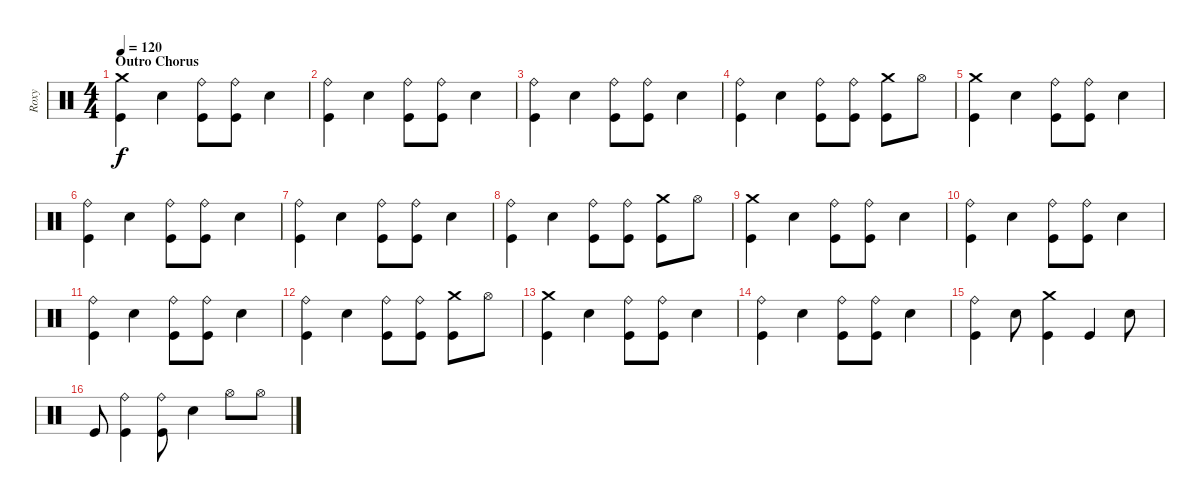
\track ("Roxy" "Roxy") {instrument percussion}
\staff {score}
\articulation defaults
\ts (4 4)
\section ("" "Outro Chorus")
\tempo 120
\clef neutral
\ks c
("Crash medium (hit)" "Kick (hit)").4{dy f} "Electric Snare (hit)".4 ("Ride (bell)" "Kick (hit)").8 ("Ride (bell)" "Kick (hit)").8 "Electric Snare (hit)".4 |
("Ride (bell)" "Kick (hit)").4 "Electric Snare (hit)".4 ("Ride (bell)" "Kick (hit)").8 ("Ride (bell)" "Kick (hit)").8 "Electric Snare (hit)".4 |
("Ride (bell)" "Kick (hit)").4 "Electric Snare (hit)".4 ("Ride (bell)" "Kick (hit)").8 ("Ride (bell)" "Kick (hit)").8 "Electric Snare (hit)".4 |
("Ride (bell)" "Kick (hit)").4 "Electric Snare (hit)".4 ("Ride (bell)" "Kick (hit)").8 ("Ride (bell)" "Kick (hit)").8 ("Crash medium (hit)" "Kick (hit)").8 "Hi-Hat (open)".8 |
("Crash medium (hit)" "Kick (hit)").4 "Electric Snare (hit)".4 ("Ride (bell)" "Kick (hit)").8 ("Ride (bell)" "Kick (hit)").8 "Electric Snare (hit)".4 |
("Ride (bell)" "Kick (hit)").4 "Electric Snare (hit)".4 ("Ride (bell)" "Kick (hit)").8 ("Ride (bell)" "Kick (hit)").8 "Electric Snare (hit)".4 |
("Ride (bell)" "Kick (hit)").4 "Electric Snare (hit)".4 ("Ride (bell)" "Kick (hit)").8 ("Ride (bell)" "Kick (hit)").8 "Electric Snare (hit)".4 |
("Ride (bell)" "Kick (hit)").4 "Electric Snare (hit)".4 ("Ride (bell)" "Kick (hit)").8 ("Ride (bell)" "Kick (hit)").8 ("Crash medium (hit)" "Kick (hit)").8 "Hi-Hat (open)".8 |
("Crash medium (hit)" "Kick (hit)").4 "Electric Snare (hit)".4 ("Ride (bell)" "Kick (hit)").8 ("Ride (bell)" "Kick (hit)").8 "Electric Snare (hit)".4 |
("Ride (bell)" "Kick (hit)").4 "Electric Snare (hit)".4 ("Ride (bell)" "Kick (hit)").8 ("Ride (bell)" "Kick (hit)").8 "Electric Snare (hit)".4 |
("Ride (bell)" "Kick (hit)").4 "Electric Snare (hit)".4 ("Ride (bell)" "Kick (hit)").8 ("Ride (bell)" "Kick (hit)").8 "Electric Snare (hit)".4 |
("Ride (bell)" "Kick (hit)").4 "Electric Snare (hit)".4 ("Ride (bell)" "Kick (hit)").8 ("Ride (bell)" "Kick (hit)").8 ("Crash medium (hit)" "Kick (hit)").8 "Hi-Hat (open)".8 |
("Crash medium (hit)" "Kick (hit)").4 "Electric Snare (hit)".4 ("Ride (bell)" "Kick (hit)").8 ("Ride (bell)" "Kick (hit)").8 "Electric Snare (hit)".4 |
("Ride (bell)" "Kick (hit)").4 "Electric Snare (hit)".4 ("Ride (bell)" "Kick (hit)").8 ("Ride (bell)" "Kick (hit)").8 "Electric Snare (hit)".4 |
("Ride (bell)" "Kick (hit)").4 "Electric Snare (hit)".8 ("Crash medium (hit)" "Kick (hit)").4 "Kick (hit)".4 "Electric Snare (hit)".8 |
"Kick (hit)".8 ("Ride (bell)" "Kick (hit)").4 ("Ride (bell)" "Kick (hit)").8 "Electric Snare (hit)".4 "Hi-Hat (open)".8 "Hi-Hat (open)".8
